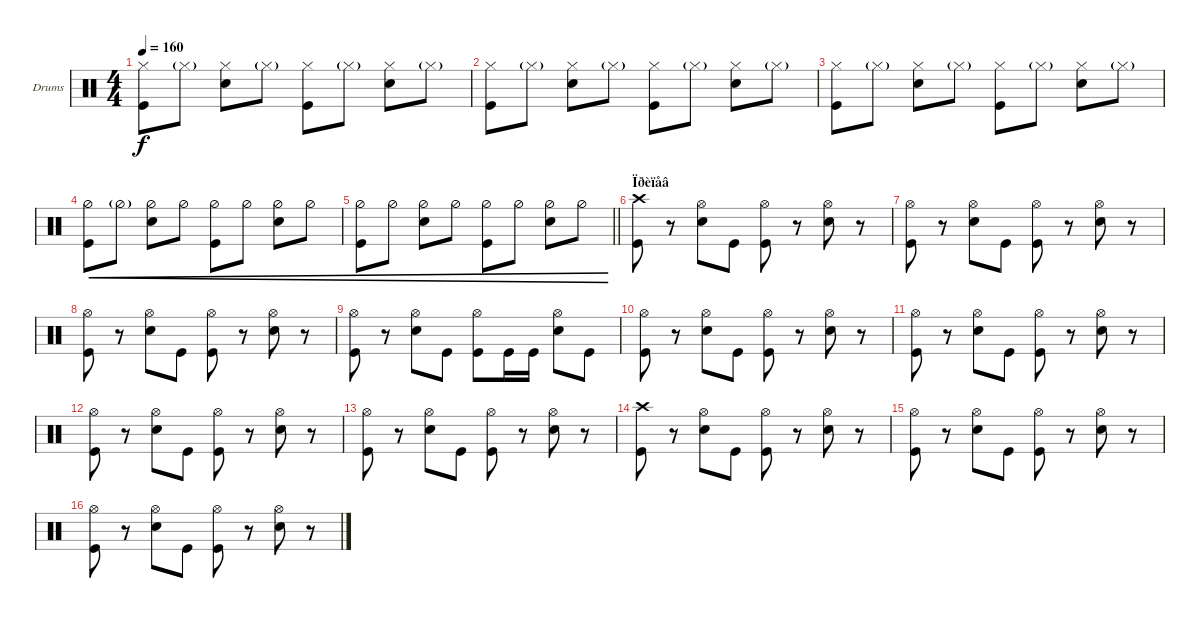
\bracketExtendMode groupsimilarinstruments
\firstSystemTrackNameOrientation horizontal
\otherSystemsTrackNameOrientation horizontal
\track ("Drumkit" "Drums") {instrument percussion}
\staff {score}
\articulation defaults
\ts (4 4)
\tempo 160
\clef neutral
\ks c
("Kick (hit)" "Hi-Hat (closed)").8{dy f} "Hi-Hat (closed)"{g}.8 ("Hi-Hat (closed)" "Snare (hit) 2").8 "Hi-Hat (closed)"{g}.8 ("Hi-Hat (closed)" "Kick (hit)").8 "Hi-Hat (closed)"{g}.8 ("Hi-Hat (closed)" "Snare (hit) 2").8 "Hi-Hat (closed)"{g}.8 |
("Kick (hit)" "Hi-Hat (closed)").8 "Hi-Hat (closed)"{g}.8 ("Hi-Hat (closed)" "Snare (hit) 2").8 "Hi-Hat (closed)"{g}.8 ("Hi-Hat (closed)" "Kick (hit)").8 "Hi-Hat (closed)"{g}.8 ("Hi-Hat (closed)" "Snare (hit) 2").8 "Hi-Hat (closed)"{g}.8 |
("Kick (hit)" "Hi-Hat (closed)").8 "Hi-Hat (closed)"{g}.8 ("Hi-Hat (closed)" "Snare (hit) 2").8 "Hi-Hat (closed)"{g}.8 ("Hi-Hat (closed)" "Kick (hit)").8 "Hi-Hat (closed)"{g}.8 ("Hi-Hat (closed)" "Snare (hit) 2").8 "Hi-Hat (closed)"{g}.8 |
("Kick (hit)" "Hi-Hat (half)").8{cre} "Hi-Hat (half)"{g}.8{cre} ("Hi-Hat (half)" "Snare (hit) 2").8{cre} "Hi-Hat (half)".8{cre} ("Hi-Hat (half)" "Kick (hit)").8{cre} "Hi-Hat (half)".8{cre} ("Hi-Hat (half)" "Snare (hit) 2").8{cre} "Hi-Hat (half)".8{cre} |
\barLineRight lightlight
("Kick (hit)" "Hi-Hat (half)").8{cre} "Hi-Hat (half)".8{cre} ("Hi-Hat (half)" "Snare (hit) 2").8{cre} "Hi-Hat (half)".8{cre} ("Hi-Hat (half)" "Kick (hit)").8{cre} "Hi-Hat (half)".8{cre} ("Hi-Hat (half)" "Snare (hit) 2").8{cre} "Hi-Hat (half)".8{cre} |
\section ("" "Ïðèïåâ")
("Crash high (hit)" "Kick (hit)").8 r.8 ("Snare (hit) 2" "Hi-Hat (open)").8 "Kick (hit)".8 ("Kick (hit)" "Hi-Hat (open)").8 r.8 ("Snare (hit) 2" "Hi-Hat (open)").8 r.8 |
("Kick (hit)" "Hi-Hat (open)").8 r.8 ("Snare (hit) 2" "Hi-Hat (open)").8 "Kick (hit)".8 ("Kick (hit)" "Hi-Hat (open)").8 r.8 ("Snare (hit) 2" "Hi-Hat (open)").8 r.8 |
("Kick (hit)" "Hi-Hat (open)").8 r.8 ("Snare (hit) 2" "Hi-Hat (open)").8 "Kick (hit)".8 ("Kick (hit)" "Hi-Hat (open)").8 r.8 ("Snare (hit) 2" "Hi-Hat (open)").8 r.8 |
("Kick (hit)" "Hi-Hat (open)").8 r.8 ("Snare (hit) 2" "Hi-Hat (open)").8 "Kick (hit)".8 ("Kick (hit)" "Hi-Hat (open)").8 "Kick (hit)".16 "Kick (hit)".16 ("Snare (hit) 2" "Hi-Hat (open)").8 "Kick (hit)".8 |
("Kick (hit)" "Hi-Hat (open)").8 r.8 ("Snare (hit) 2" "Hi-Hat (open)").8 "Kick (hit)".8 ("Kick (hit)" "Hi-Hat (open)").8 r.8 ("Snare (hit) 2" "Hi-Hat (open)").8 r.8 |
("Kick (hit)" "Hi-Hat (open)").8 r.8 ("Snare (hit) 2" "Hi-Hat (open)").8 "Kick (hit)".8 ("Kick (hit)" "Hi-Hat (open)").8 r.8 ("Snare (hit) 2" "Hi-Hat (open)").8 r.8 |
("Kick (hit)" "Hi-Hat (open)").8 r.8 ("Snare (hit) 2" "Hi-Hat (open)").8 "Kick (hit)".8 ("Kick (hit)" "Hi-Hat (open)").8 r.8 ("Snare (hit) 2" "Hi-Hat (open)").8 r.8 |
("Kick (hit)" "Hi-Hat (open)").8 r.8 ("Snare (hit) 2" "Hi-Hat (open)").8 "Kick (hit)".8 ("Kick (hit)" "Hi-Hat (open)").8 r.8 ("Snare (hit) 2" "Hi-Hat (open)").8 r.8 |
("Crash high (hit)" "Kick (hit)").8 r.8 ("Snare (hit) 2" "Hi-Hat (open)").8 "Kick (hit)".8 ("Kick (hit)" "Hi-Hat (open)").8 r.8 ("Snare (hit) 2" "Hi-Hat (open)").8 r.8 |
("Kick (hit)" "Hi-Hat (open)").8 r.8 ("Snare (hit) 2" "Hi-Hat (open)").8 "Kick (hit)".8 ("Kick (hit)" "Hi-Hat (open)").8 r.8 ("Snare (hit) 2" "Hi-Hat (open)").8 r.8 |
("Kick (hit)" "Hi-Hat (open)").8 r.8 ("Snare (hit) 2" "Hi-Hat (open)").8 "Kick (hit)".8 ("Kick (hit)" "Hi-Hat (open)").8 r.8 ("Snare (hit) 2" "Hi-Hat (open)").8 r.8
